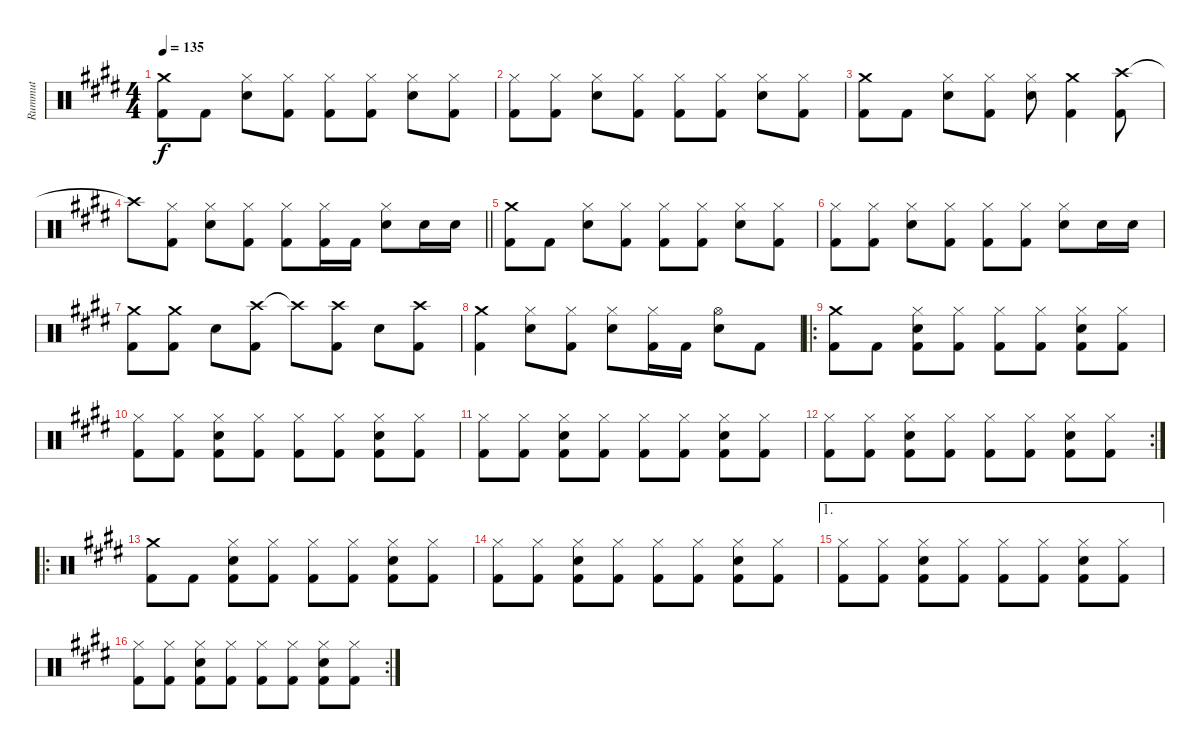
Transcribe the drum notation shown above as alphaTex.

\track ("Rummut" "Rummut") {instrument percussion}
\staff {score}
\articulation defaults
\ts (4 4)
\tempo 135
\clef neutral
\ks e
("Crash medium (hit)" "Kick (hit) 2").8{dy f} "Kick (hit) 2".8 ("Hi-Hat (closed)" "Snare (hit) 2").8 ("Hi-Hat (closed)" "Kick (hit) 2").8 ("Hi-Hat (closed)" "Kick (hit) 2").8 ("Hi-Hat (closed)" "Kick (hit) 2").8 ("Hi-Hat (closed)" "Snare (hit) 2").8 ("Hi-Hat (closed)" "Kick (hit) 2").8 |
("Hi-Hat (closed)" "Kick (hit) 2").8 ("Hi-Hat (closed)" "Kick (hit) 2").8 ("Hi-Hat (closed)" "Snare (hit) 2").8 ("Hi-Hat (closed)" "Kick (hit) 2").8 ("Hi-Hat (closed)" "Kick (hit) 2").8 ("Hi-Hat (closed)" "Kick (hit) 2").8 ("Hi-Hat (closed)" "Snare (hit) 2").8 ("Hi-Hat (closed)" "Kick (hit) 2").8 |
("Crash medium (hit)" "Kick (hit) 2").8 "Kick (hit) 2".8 ("Hi-Hat (closed)" "Snare (hit) 2").8 ("Hi-Hat (closed)" "Kick (hit) 2").8 ("Hi-Hat (closed)" "Snare (hit) 2").8 ("Crash medium (hit)" "Kick (hit) 2").4 ("Crash high (hit)" "Kick (hit) 2").8 |
\barLineRight lightlight "Crash high (hit)"{t}.8
("Hi-Hat (closed)" "Kick (hit) 2").8 ("Hi-Hat (closed)" "Snare (hit) 2").8 ("Hi-Hat (closed)" "Kick (hit) 2").8 ("Hi-Hat (closed)" "Kick (hit) 2").8 ("Hi-Hat (closed)" "Kick (hit) 2").16 "Kick (hit) 2".16 ("Hi-Hat (closed)" "Snare (hit) 2").8 "Snare (hit) 2".16 "Snare (hit) 2".16 |
("Crash medium (hit)" "Kick (hit) 2").8 "Kick (hit) 2".8 ("Hi-Hat (closed)" "Snare (hit) 2").8 ("Hi-Hat (closed)" "Kick (hit) 2").8 ("Hi-Hat (closed)" "Kick (hit) 2").8 ("Hi-Hat (closed)" "Kick (hit) 2").8 ("Hi-Hat (closed)" "Snare (hit) 2").8 ("Hi-Hat (closed)" "Kick (hit) 2").8 |
("Hi-Hat (closed)" "Kick (hit) 2").8 ("Hi-Hat (closed)" "Kick (hit) 2").8 ("Hi-Hat (closed)" "Snare (hit) 2").8 ("Hi-Hat (closed)" "Kick (hit) 2").8 ("Hi-Hat (closed)" "Kick (hit) 2").8 ("Hi-Hat (closed)" "Kick (hit) 2").8 ("Hi-Hat (closed)" "Snare (hit) 2").8 "Snare (hit) 2".16 "Snare (hit) 2".16 |
("Crash medium (hit)" "Kick (hit) 2").8 ("Crash medium (hit)" "Kick (hit) 2").8 "Snare (hit) 2".8 ("Crash high (hit)" "Kick (hit) 2").8 "Crash high (hit)"{t}.8 ("Crash high (hit)" "Kick (hit) 2").8 "Snare (hit) 2".8 ("Crash high (hit)" "Kick (hit) 2").8 |
("Crash medium (hit)" "Kick (hit) 2").4 ("Hi-Hat (closed)" "Snare (hit) 2").8 ("Hi-Hat (closed)" "Kick (hit) 2").8 ("Hi-Hat (closed)" "Snare (hit) 2").8 ("Hi-Hat (closed)" "Kick (hit) 2").16 "Kick (hit) 2".16 ("Hi-Hat (open)" "Snare (hit) 2").8 "Kick (hit) 2".8 |
\ro
("Crash medium (hit)" "Kick (hit) 2").8 "Kick (hit) 2".8 ("Hi-Hat (closed)" "Snare (hit) 2" "Kick (hit) 2").8 ("Hi-Hat (closed)" "Kick (hit) 2").8 ("Hi-Hat (closed)" "Kick (hit) 2").8 ("Hi-Hat (closed)" "Kick (hit) 2").8 ("Hi-Hat (closed)" "Snare (hit) 2" "Kick (hit) 2").8 ("Hi-Hat (closed)" "Kick (hit) 2").8 |
("Hi-Hat (closed)" "Kick (hit) 2").8 ("Hi-Hat (closed)" "Kick (hit) 2").8 ("Hi-Hat (closed)" "Snare (hit) 2" "Kick (hit) 2").8 ("Hi-Hat (closed)" "Kick (hit) 2").8 ("Hi-Hat (closed)" "Kick (hit) 2").8 ("Hi-Hat (closed)" "Kick (hit) 2").8 ("Hi-Hat (closed)" "Snare (hit) 2" "Kick (hit) 2").8 ("Hi-Hat (closed)" "Kick (hit) 2").8 |
("Hi-Hat (closed)" "Kick (hit) 2").8 ("Hi-Hat (closed)" "Kick (hit) 2").8 ("Hi-Hat (closed)" "Snare (hit) 2" "Kick (hit) 2").8 ("Hi-Hat (closed)" "Kick (hit) 2").8 ("Hi-Hat (closed)" "Kick (hit) 2").8 ("Hi-Hat (closed)" "Kick (hit) 2").8 ("Hi-Hat (closed)" "Snare (hit) 2" "Kick (hit) 2").8 ("Hi-Hat (closed)" "Kick (hit) 2").8 |
\rc 2
("Hi-Hat (closed)" "Kick (hit) 2").8 ("Hi-Hat (closed)" "Kick (hit) 2").8 ("Hi-Hat (closed)" "Snare (hit) 2" "Kick (hit) 2").8 ("Hi-Hat (closed)" "Kick (hit) 2").8 ("Hi-Hat (closed)" "Kick (hit) 2").8 ("Hi-Hat (closed)" "Kick (hit) 2").8 ("Hi-Hat (closed)" "Snare (hit) 2" "Kick (hit) 2").8 ("Hi-Hat (closed)" "Kick (hit) 2").8 |
\ro
("Crash medium (hit)" "Kick (hit) 2").8 "Kick (hit) 2".8 ("Hi-Hat (closed)" "Snare (hit) 2" "Kick (hit) 2").8 ("Hi-Hat (closed)" "Kick (hit) 2").8 ("Hi-Hat (closed)" "Kick (hit) 2").8 ("Hi-Hat (closed)" "Kick (hit) 2").8 ("Hi-Hat (closed)" "Snare (hit) 2" "Kick (hit) 2").8 ("Hi-Hat (closed)" "Kick (hit) 2").8 |
("Hi-Hat (closed)" "Kick (hit) 2").8 ("Hi-Hat (closed)" "Kick (hit) 2").8 ("Hi-Hat (closed)" "Snare (hit) 2" "Kick (hit) 2").8 ("Hi-Hat (closed)" "Kick (hit) 2").8 ("Hi-Hat (closed)" "Kick (hit) 2").8 ("Hi-Hat (closed)" "Kick (hit) 2").8 ("Hi-Hat (closed)" "Snare (hit) 2" "Kick (hit) 2").8 ("Hi-Hat (closed)" "Kick (hit) 2").8 |
\ae 1
("Hi-Hat (closed)" "Kick (hit) 2").8 ("Hi-Hat (closed)" "Kick (hit) 2").8 ("Hi-Hat (closed)" "Snare (hit) 2" "Kick (hit) 2").8 ("Hi-Hat (closed)" "Kick (hit) 2").8 ("Hi-Hat (closed)" "Kick (hit) 2").8 ("Hi-Hat (closed)" "Kick (hit) 2").8 ("Hi-Hat (closed)" "Snare (hit) 2" "Kick (hit) 2").8 ("Hi-Hat (closed)" "Kick (hit) 2").8 |
\rc 2
("Hi-Hat (closed)" "Kick (hit) 2").8 ("Hi-Hat (closed)" "Kick (hit) 2").8 ("Hi-Hat (closed)" "Snare (hit) 2" "Kick (hit) 2").8 ("Hi-Hat (closed)" "Kick (hit) 2").8 ("Hi-Hat (closed)" "Kick (hit) 2").8 ("Hi-Hat (closed)" "Kick (hit) 2").8 ("Hi-Hat (closed)" "Snare (hit) 2" "Kick (hit) 2").8 ("Hi-Hat (closed)" "Kick (hit) 2").8
